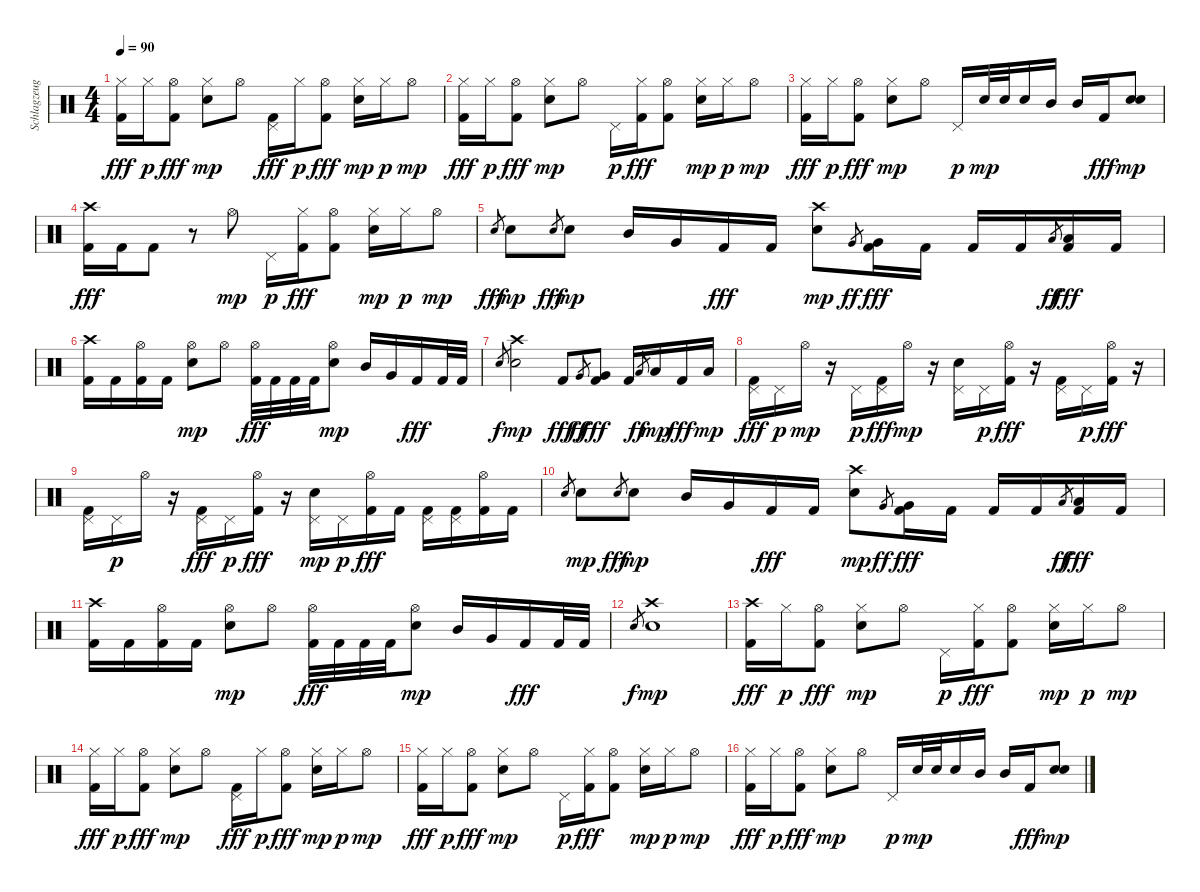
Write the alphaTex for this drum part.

\track ("Schlagzeug" "Schlagzeug") {instrument percussion}
\staff {score}
\articulation defaults
\ts (4 4)
\tempo 90
\clef neutral
\ks c
("Hi-Hat (closed)" "Kick (hit) 2").16{dy fff} "Hi-Hat (closed)".16{dy p} ("Hi-Hat (open)" "Kick (hit) 2").8{dy fff} ("Hi-Hat (closed)" "Electric Snare (hit)").8{dy mp} "Hi-Hat (open)".8 ("Pedal Hi-Hat (hit)" "Kick (hit) 2").16{dy fff} "Hi-Hat (closed)".16{dy p} ("Hi-Hat (open)" "Kick (hit) 2").8{dy fff} ("Hi-Hat (closed)" "Electric Snare (hit)").16{dy mp} "Hi-Hat (closed)".16{dy p} "Hi-Hat (open)".8{dy mp} |
("Hi-Hat (closed)" "Kick (hit) 2").16{dy fff} "Hi-Hat (closed)".16{dy p} ("Hi-Hat (open)" "Kick (hit) 2").8{dy fff} ("Hi-Hat (closed)" "Electric Snare (hit)").8{dy mp} "Hi-Hat (open)".8 "Pedal Hi-Hat (hit)".16{dy p} ("Hi-Hat (closed)" "Kick (hit) 2").16{dy fff} ("Hi-Hat (open)" "Kick (hit) 2").8 ("Hi-Hat (closed)" "Electric Snare (hit)").16{dy mp} "Hi-Hat (closed)".16{dy p} "Hi-Hat (open)".8{dy mp} |
("Hi-Hat (closed)" "Kick (hit) 2").16{dy fff} "Hi-Hat (closed)".16{dy p} ("Hi-Hat (open)" "Kick (hit) 2").8{dy fff} ("Hi-Hat (closed)" "Electric Snare (hit)").8{dy mp} "Hi-Hat (open)".8 "Pedal Hi-Hat (hit)".16{dy p} "Electric Snare (hit)".32{dy mp} "Electric Snare (hit)".32 "Electric Snare (hit)".16 "Mid Tom (hit)".16 "Mid Tom (hit)".16 "Kick (hit) 2".16{dy fff} ("Electric Snare (hit)" "Electric Snare (hit)").8{dy mp} |
("Crash high (hit)" "Kick (hit) 2").16{dy fff} "Kick (hit) 2".16 "Kick (hit) 2".8 r.8 "Hi-Hat (open)".8{dy mp} "Pedal Hi-Hat (hit)".16{dy p} ("Hi-Hat (closed)" "Kick (hit) 2").16{dy fff} ("Hi-Hat (open)" "Kick (hit) 2").8 ("Hi-Hat (closed)" "Electric Snare (hit)").16{dy mp} "Hi-Hat (closed)".16{dy p} "Hi-Hat (open)".8{dy mp} |
"Electric Snare (hit)".8{gr dy fff} "Electric Snare (hit)".8{dy mp} "Electric Snare (hit)".8{gr dy fff} "Electric Snare (hit)".8{dy mp} "Mid Tom (hit)".16 "Very Low Tom (hit)".16 "Kick (hit) 2".16{dy fff} "Kick (hit) 2".16 ("Crash high (hit)" "Electric Snare (hit)").8{dy mp} "Very Low Tom (hit)".8{gr dy ff} ("Very Low Tom (hit)" "Kick (hit) 2").16{dy fff} "Kick (hit) 2".16 "Kick (hit) 2".16 "Kick (hit) 2".16 "Low Floor Tom (hit)".8{gr dy ff} ("Low Floor Tom (hit)" "Kick (hit) 2").16{dy fff} "Kick (hit) 2".16 |
("Crash high (hit)" "Kick (hit) 2").16 "Kick (hit) 2".16 ("Hi-Hat (open)" "Kick (hit) 2").16 "Kick (hit) 2".16 ("Hi-Hat (open)" "Electric Snare (hit)").8{dy mp} "Hi-Hat (open)".8 ("Hi-Hat (open)" "Kick (hit) 2").32{dy fff} "Kick (hit) 2".32 "Kick (hit) 2".32 "Kick (hit) 2".32 ("Hi-Hat (open)" "Electric Snare (hit)").8{dy mp} "Mid Tom (hit)".16 "Very Low Tom (hit)".16 "Kick (hit) 2".16{dy fff} "Kick (hit) 2".32 "Kick (hit) 2".32 |
"Electric Snare (hit)".8{gr dy f} ("Crash high (hit)" "Electric Snare (hit)").2{dy mp} "Kick (hit) 2".8{dy fff} "Very Low Tom (hit)".8{gr dy ff} ("Very Low Tom (hit)" "Kick (hit) 2").8{dy fff} "Kick (hit) 2".16 "Low Floor Tom (hit)".8{gr dy ff} "Low Floor Tom (hit)".16{dy mp} "Kick (hit) 2".16{dy fff} "Low Floor Tom (hit)".16{dy mp} |
("Pedal Hi-Hat (hit)" "Kick (hit) 2").16{dy fff} "Pedal Hi-Hat (hit)".16{dy p} "Hi-Hat (open)".16{dy mp} r.16 "Pedal Hi-Hat (hit)".16{dy p} ("Pedal Hi-Hat (hit)" "Kick (hit) 2").16{dy fff} "Hi-Hat (open)".16{dy mp} r.16 ("Pedal Hi-Hat (hit)" "Electric Snare (hit)").16 "Pedal Hi-Hat (hit)".16{dy p} ("Hi-Hat (open)" "Kick (hit) 2").16{dy fff} r.16 ("Pedal Hi-Hat (hit)" "Kick (hit) 2").16 "Pedal Hi-Hat (hit)".16{dy p} ("Hi-Hat (open)" "Kick (hit) 2").16{dy fff} r.16 |
("Pedal Hi-Hat (hit)" "Kick (hit) 2").16 "Pedal Hi-Hat (hit)".16{dy p} "Hi-Hat (open)".16 r.16 ("Pedal Hi-Hat (hit)" "Kick (hit) 2").16{dy fff} "Pedal Hi-Hat (hit)".16{dy p} ("Hi-Hat (open)" "Kick (hit) 2").16{dy fff} r.16 ("Pedal Hi-Hat (hit)" "Electric Snare (hit)").16{dy mp} "Pedal Hi-Hat (hit)".16{dy p} ("Hi-Hat (open)" "Kick (hit) 2").16{dy fff} "Kick (hit) 2".16 ("Pedal Hi-Hat (hit)" "Kick (hit) 2").16 ("Pedal Hi-Hat (hit)" "Kick (hit) 2").16 ("Hi-Hat (open)" "Kick (hit) 2").16 "Kick (hit) 2".16 |
"Electric Snare (hit)".8{gr} "Electric Snare (hit)".8{dy mp} "Electric Snare (hit)".8{gr dy fff} "Electric Snare (hit)".8{dy mp} "Mid Tom (hit)".16 "Very Low Tom (hit)".16 "Kick (hit) 2".16{dy fff} "Kick (hit) 2".16 ("Crash high (hit)" "Electric Snare (hit)").8{dy mp} "Very Low Tom (hit)".8{gr dy ff} ("Very Low Tom (hit)" "Kick (hit) 2").16{dy fff} "Kick (hit) 2".16 "Kick (hit) 2".16 "Kick (hit) 2".16 "Low Floor Tom (hit)".8{gr dy ff} ("Low Floor Tom (hit)" "Kick (hit) 2").16{dy fff} "Kick (hit) 2".16 |
("Crash high (hit)" "Kick (hit) 2").16 "Kick (hit) 2".16 ("Hi-Hat (open)" "Kick (hit) 2").16 "Kick (hit) 2".16 ("Hi-Hat (open)" "Electric Snare (hit)").8{dy mp} "Hi-Hat (open)".8 ("Hi-Hat (open)" "Kick (hit) 2").32{dy fff} "Kick (hit) 2".32 "Kick (hit) 2".32 "Kick (hit) 2".32 ("Hi-Hat (open)" "Electric Snare (hit)").8{dy mp} "Mid Tom (hit)".16 "Very Low Tom (hit)".16 "Kick (hit) 2".16{dy fff} "Kick (hit) 2".32 "Kick (hit) 2".32 |
"Electric Snare (hit)".8{gr dy f} ("Crash high (hit)" "Electric Snare (hit)").1{dy mp} |
("Crash high (hit)" "Kick (hit) 2").16{dy fff} "Hi-Hat (closed)".16{dy p} ("Hi-Hat (open)" "Kick (hit) 2").8{dy fff} ("Hi-Hat (closed)" "Electric Snare (hit)").8{dy mp} "Hi-Hat (open)".8 "Pedal Hi-Hat (hit)".16{dy p} ("Hi-Hat (closed)" "Kick (hit) 2").16{dy fff} ("Hi-Hat (open)" "Kick (hit) 2").8 ("Hi-Hat (closed)" "Electric Snare (hit)").16{dy mp} "Hi-Hat (closed)".16{dy p} "Hi-Hat (open)".8{dy mp} |
("Hi-Hat (closed)" "Kick (hit) 2").16{dy fff} "Hi-Hat (closed)".16{dy p} ("Hi-Hat (open)" "Kick (hit) 2").8{dy fff} ("Hi-Hat (closed)" "Electric Snare (hit)").8{dy mp} "Hi-Hat (open)".8 ("Pedal Hi-Hat (hit)" "Kick (hit) 2").16{dy fff} "Hi-Hat (closed)".16{dy p} ("Hi-Hat (open)" "Kick (hit) 2").8{dy fff} ("Hi-Hat (closed)" "Electric Snare (hit)").16{dy mp} "Hi-Hat (closed)".16{dy p} "Hi-Hat (open)".8{dy mp} |
("Hi-Hat (closed)" "Kick (hit) 2").16{dy fff} "Hi-Hat (closed)".16{dy p} ("Hi-Hat (open)" "Kick (hit) 2").8{dy fff} ("Hi-Hat (closed)" "Electric Snare (hit)").8{dy mp} "Hi-Hat (open)".8 "Pedal Hi-Hat (hit)".16{dy p} ("Hi-Hat (closed)" "Kick (hit) 2").16{dy fff} ("Hi-Hat (open)" "Kick (hit) 2").8 ("Hi-Hat (closed)" "Electric Snare (hit)").16{dy mp} "Hi-Hat (closed)".16{dy p} "Hi-Hat (open)".8{dy mp} |
("Hi-Hat (closed)" "Kick (hit) 2").16{dy fff} "Hi-Hat (closed)".16{dy p} ("Hi-Hat (open)" "Kick (hit) 2").8{dy fff} ("Hi-Hat (closed)" "Electric Snare (hit)").8{dy mp} "Hi-Hat (open)".8 "Pedal Hi-Hat (hit)".16{dy p} "Electric Snare (hit)".32{dy mp} "Electric Snare (hit)".32 "Electric Snare (hit)".16 "Mid Tom (hit)".16 "Mid Tom (hit)".16 "Kick (hit) 2".16{dy fff} ("Electric Snare (hit)" "Electric Snare (hit)").8{dy mp}
